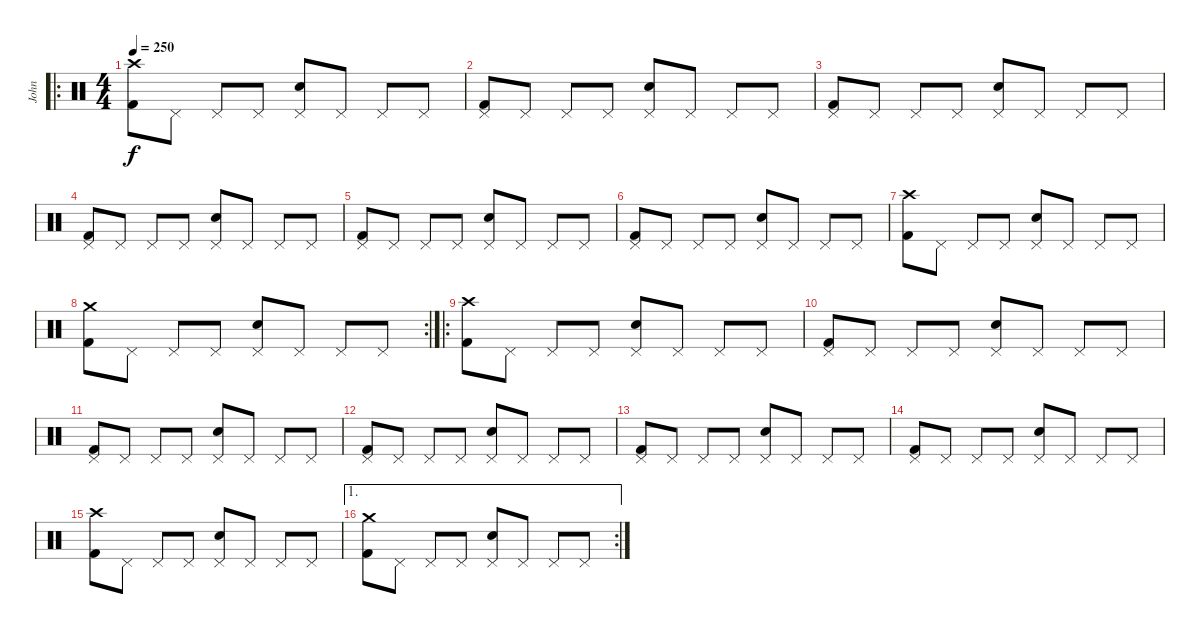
\track ("John" "John") {instrument percussion}
\staff {score}
\articulation defaults
\ro
\ts (4 4)
\tempo 250
\clef neutral
\ks c
("Crash high (hit)" "Kick (hit) 2").8{dy f} "Pedal Hi-Hat (hit)".8 "Pedal Hi-Hat (hit)".8 "Pedal Hi-Hat (hit)".8 ("Pedal Hi-Hat (hit)" "Electric Snare (hit)").8 "Pedal Hi-Hat (hit)".8 "Pedal Hi-Hat (hit)".8 "Pedal Hi-Hat (hit)".8 |
("Pedal Hi-Hat (hit)" "Kick (hit) 2").8 "Pedal Hi-Hat (hit)".8 "Pedal Hi-Hat (hit)".8 "Pedal Hi-Hat (hit)".8 ("Pedal Hi-Hat (hit)" "Electric Snare (hit)").8 "Pedal Hi-Hat (hit)".8 "Pedal Hi-Hat (hit)".8 "Pedal Hi-Hat (hit)".8 |
("Pedal Hi-Hat (hit)" "Kick (hit) 2").8 "Pedal Hi-Hat (hit)".8 "Pedal Hi-Hat (hit)".8 "Pedal Hi-Hat (hit)".8 ("Pedal Hi-Hat (hit)" "Electric Snare (hit)").8 "Pedal Hi-Hat (hit)".8 "Pedal Hi-Hat (hit)".8 "Pedal Hi-Hat (hit)".8 |
("Pedal Hi-Hat (hit)" "Kick (hit) 2").8 "Pedal Hi-Hat (hit)".8 "Pedal Hi-Hat (hit)".8 "Pedal Hi-Hat (hit)".8 ("Pedal Hi-Hat (hit)" "Electric Snare (hit)").8 "Pedal Hi-Hat (hit)".8 "Pedal Hi-Hat (hit)".8 "Pedal Hi-Hat (hit)".8 |
("Pedal Hi-Hat (hit)" "Kick (hit) 2").8 "Pedal Hi-Hat (hit)".8 "Pedal Hi-Hat (hit)".8 "Pedal Hi-Hat (hit)".8 ("Pedal Hi-Hat (hit)" "Electric Snare (hit)").8 "Pedal Hi-Hat (hit)".8 "Pedal Hi-Hat (hit)".8 "Pedal Hi-Hat (hit)".8 |
("Pedal Hi-Hat (hit)" "Kick (hit) 2").8 "Pedal Hi-Hat (hit)".8 "Pedal Hi-Hat (hit)".8 "Pedal Hi-Hat (hit)".8 ("Pedal Hi-Hat (hit)" "Electric Snare (hit)").8 "Pedal Hi-Hat (hit)".8 "Pedal Hi-Hat (hit)".8 "Pedal Hi-Hat (hit)".8 |
("Crash high (hit)" "Kick (hit) 2").8 "Pedal Hi-Hat (hit)".8 "Pedal Hi-Hat (hit)".8 "Pedal Hi-Hat (hit)".8 ("Pedal Hi-Hat (hit)" "Electric Snare (hit)").8 "Pedal Hi-Hat (hit)".8 "Pedal Hi-Hat (hit)".8 "Pedal Hi-Hat (hit)".8 |
\rc 2
("Crash medium (hit)" "Kick (hit) 2").8 "Pedal Hi-Hat (hit)".8 "Pedal Hi-Hat (hit)".8 "Pedal Hi-Hat (hit)".8 ("Pedal Hi-Hat (hit)" "Electric Snare (hit)").8 "Pedal Hi-Hat (hit)".8 "Pedal Hi-Hat (hit)".8 "Pedal Hi-Hat (hit)".8 |
\ro
("Crash high (hit)" "Kick (hit) 2").8 "Pedal Hi-Hat (hit)".8 "Pedal Hi-Hat (hit)".8 "Pedal Hi-Hat (hit)".8 ("Pedal Hi-Hat (hit)" "Electric Snare (hit)").8 "Pedal Hi-Hat (hit)".8 "Pedal Hi-Hat (hit)".8 "Pedal Hi-Hat (hit)".8 |
("Pedal Hi-Hat (hit)" "Kick (hit) 2").8 "Pedal Hi-Hat (hit)".8 "Pedal Hi-Hat (hit)".8 "Pedal Hi-Hat (hit)".8 ("Pedal Hi-Hat (hit)" "Electric Snare (hit)").8 "Pedal Hi-Hat (hit)".8 "Pedal Hi-Hat (hit)".8 "Pedal Hi-Hat (hit)".8 |
("Pedal Hi-Hat (hit)" "Kick (hit) 2").8 "Pedal Hi-Hat (hit)".8 "Pedal Hi-Hat (hit)".8 "Pedal Hi-Hat (hit)".8 ("Pedal Hi-Hat (hit)" "Electric Snare (hit)").8 "Pedal Hi-Hat (hit)".8 "Pedal Hi-Hat (hit)".8 "Pedal Hi-Hat (hit)".8 |
("Pedal Hi-Hat (hit)" "Kick (hit) 2").8 "Pedal Hi-Hat (hit)".8 "Pedal Hi-Hat (hit)".8 "Pedal Hi-Hat (hit)".8 ("Pedal Hi-Hat (hit)" "Electric Snare (hit)").8 "Pedal Hi-Hat (hit)".8 "Pedal Hi-Hat (hit)".8 "Pedal Hi-Hat (hit)".8 |
("Pedal Hi-Hat (hit)" "Kick (hit) 2").8 "Pedal Hi-Hat (hit)".8 "Pedal Hi-Hat (hit)".8 "Pedal Hi-Hat (hit)".8 ("Pedal Hi-Hat (hit)" "Electric Snare (hit)").8 "Pedal Hi-Hat (hit)".8 "Pedal Hi-Hat (hit)".8 "Pedal Hi-Hat (hit)".8 |
("Pedal Hi-Hat (hit)" "Kick (hit) 2").8 "Pedal Hi-Hat (hit)".8 "Pedal Hi-Hat (hit)".8 "Pedal Hi-Hat (hit)".8 ("Pedal Hi-Hat (hit)" "Electric Snare (hit)").8 "Pedal Hi-Hat (hit)".8 "Pedal Hi-Hat (hit)".8 "Pedal Hi-Hat (hit)".8 |
("Crash high (hit)" "Kick (hit) 2").8 "Pedal Hi-Hat (hit)".8 "Pedal Hi-Hat (hit)".8 "Pedal Hi-Hat (hit)".8 ("Pedal Hi-Hat (hit)" "Electric Snare (hit)").8 "Pedal Hi-Hat (hit)".8 "Pedal Hi-Hat (hit)".8 "Pedal Hi-Hat (hit)".8 |
\ae 1
\rc 2
("Crash medium (hit)" "Kick (hit) 2").8 "Pedal Hi-Hat (hit)".8 "Pedal Hi-Hat (hit)".8 "Pedal Hi-Hat (hit)".8 ("Pedal Hi-Hat (hit)" "Electric Snare (hit)").8 "Pedal Hi-Hat (hit)".8 "Pedal Hi-Hat (hit)".8 "Pedal Hi-Hat (hit)".8
